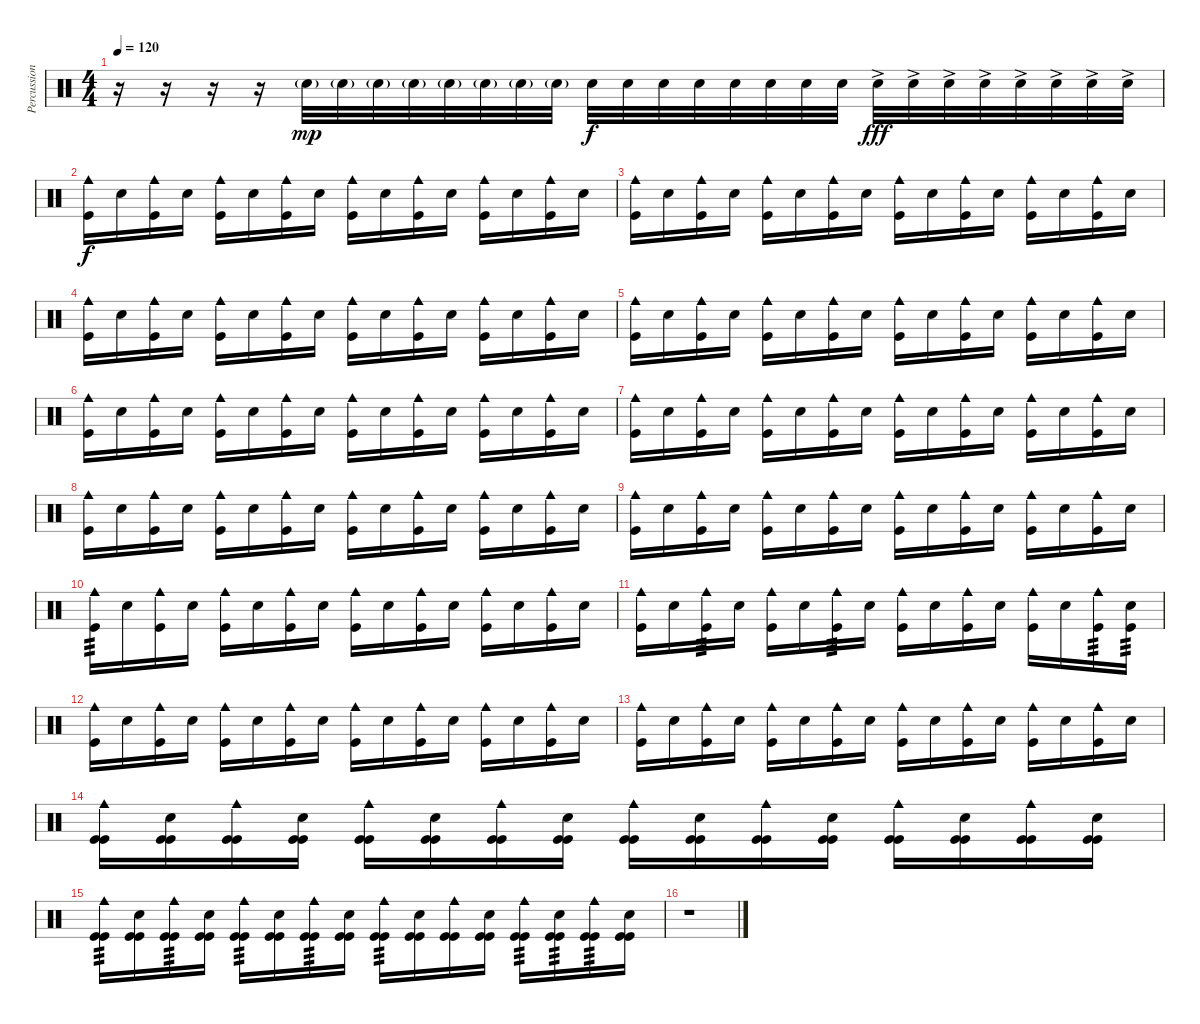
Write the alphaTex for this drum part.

\track ("Percussion" "Percussion") {instrument percussion}
\staff {score}
\articulation defaults
\ts (4 4)
\tempo 120
\clef neutral
\ks c
r.16{dy f} r.16 r.16 r.16 "Snare (hit) 2"{g}.32{dy mp} "Snare (hit) 2"{g}.32 "Snare (hit) 2"{g}.32 "Snare (hit) 2"{g}.32 "Snare (hit) 2"{g}.32 "Snare (hit) 2"{g}.32 "Snare (hit) 2"{g}.32 "Snare (hit) 2"{g}.32 "Snare (hit) 2".32{dy f} "Snare (hit) 2".32 "Snare (hit) 2".32 "Snare (hit) 2".32 "Snare (hit) 2".32 "Snare (hit) 2".32 "Snare (hit) 2".32 "Snare (hit) 2".32 "Snare (hit) 2"{ac}.32{dy fff} "Snare (hit) 2"{ac}.32 "Snare (hit) 2"{ac}.32 "Snare (hit) 2"{ac}.32 "Snare (hit) 2"{ac}.32 "Snare (hit) 2"{ac}.32 "Snare (hit) 2"{ac}.32 "Snare (hit) 2"{ac}.32 |
("Kick (hit)" "Cowbell medium (hit)").16{dy f} "Snare (hit) 2".16 ("Kick (hit)" "Cowbell medium (hit)").16 "Snare (hit) 2".16 ("Kick (hit)" "Cowbell medium (hit)").16 "Snare (hit) 2".16 ("Kick (hit)" "Cowbell medium (hit)").16 "Snare (hit) 2".16 ("Kick (hit)" "Cowbell medium (hit)").16 "Snare (hit) 2".16 ("Kick (hit)" "Cowbell medium (hit)").16 "Snare (hit) 2".16 ("Kick (hit)" "Cowbell medium (hit)").16 "Snare (hit) 2".16 ("Kick (hit)" "Cowbell medium (hit)").16 "Snare (hit) 2".16 |
("Kick (hit)" "Cowbell medium (hit)").16 "Snare (hit) 2".16 ("Kick (hit)" "Cowbell medium (hit)").16 "Snare (hit) 2".16 ("Kick (hit)" "Cowbell medium (hit)").16 "Snare (hit) 2".16 ("Kick (hit)" "Cowbell medium (hit)").16 "Snare (hit) 2".16 ("Kick (hit)" "Cowbell medium (hit)").16 "Snare (hit) 2".16 ("Kick (hit)" "Cowbell medium (hit)").16 "Snare (hit) 2".16 ("Kick (hit)" "Cowbell medium (hit)").16 "Snare (hit) 2".16 ("Kick (hit)" "Cowbell medium (hit)").16 "Snare (hit) 2".16 |
("Kick (hit)" "Cowbell medium (hit)").16 "Snare (hit) 2".16 ("Kick (hit)" "Cowbell medium (hit)").16 "Snare (hit) 2".16 ("Kick (hit)" "Cowbell medium (hit)").16 "Snare (hit) 2".16 ("Kick (hit)" "Cowbell medium (hit)").16 "Snare (hit) 2".16 ("Kick (hit)" "Cowbell medium (hit)").16 "Snare (hit) 2".16 ("Kick (hit)" "Cowbell medium (hit)").16 "Snare (hit) 2".16 ("Kick (hit)" "Cowbell medium (hit)").16 "Snare (hit) 2".16 ("Kick (hit)" "Cowbell medium (hit)").16 "Snare (hit) 2".16 |
("Kick (hit)" "Cowbell medium (hit)").16 "Snare (hit) 2".16 ("Kick (hit)" "Cowbell medium (hit)").16 "Snare (hit) 2".16 ("Kick (hit)" "Cowbell medium (hit)").16 "Snare (hit) 2".16 ("Kick (hit)" "Cowbell medium (hit)").16 "Snare (hit) 2".16 ("Kick (hit)" "Cowbell medium (hit)").16 "Snare (hit) 2".16 ("Kick (hit)" "Cowbell medium (hit)").16 "Snare (hit) 2".16 ("Kick (hit)" "Cowbell medium (hit)").16 "Snare (hit) 2".16 ("Kick (hit)" "Cowbell medium (hit)").16 "Snare (hit) 2".16 |
("Kick (hit)" "Cowbell medium (hit)").16 "Snare (hit) 2".16 ("Kick (hit)" "Cowbell medium (hit)").16 "Snare (hit) 2".16 ("Kick (hit)" "Cowbell medium (hit)").16 "Snare (hit) 2".16 ("Kick (hit)" "Cowbell medium (hit)").16 "Snare (hit) 2".16 ("Kick (hit)" "Cowbell medium (hit)").16 "Snare (hit) 2".16 ("Kick (hit)" "Cowbell medium (hit)").16 "Snare (hit) 2".16 ("Kick (hit)" "Cowbell medium (hit)").16 "Snare (hit) 2".16 ("Kick (hit)" "Cowbell medium (hit)").16 "Snare (hit) 2".16 |
("Kick (hit)" "Cowbell medium (hit)").16 "Snare (hit) 2".16 ("Kick (hit)" "Cowbell medium (hit)").16 "Snare (hit) 2".16 ("Kick (hit)" "Cowbell medium (hit)").16 "Snare (hit) 2".16 ("Kick (hit)" "Cowbell medium (hit)").16 "Snare (hit) 2".16 ("Kick (hit)" "Cowbell medium (hit)").16 "Snare (hit) 2".16 ("Kick (hit)" "Cowbell medium (hit)").16 "Snare (hit) 2".16 ("Kick (hit)" "Cowbell medium (hit)").16 "Snare (hit) 2".16 ("Kick (hit)" "Cowbell medium (hit)").16 "Snare (hit) 2".16 |
("Kick (hit)" "Cowbell medium (hit)").16 "Snare (hit) 2".16 ("Kick (hit)" "Cowbell medium (hit)").16 "Snare (hit) 2".16 ("Kick (hit)" "Cowbell medium (hit)").16 "Snare (hit) 2".16 ("Kick (hit)" "Cowbell medium (hit)").16 "Snare (hit) 2".16 ("Kick (hit)" "Cowbell medium (hit)").16 "Snare (hit) 2".16 ("Kick (hit)" "Cowbell medium (hit)").16 "Snare (hit) 2".16 ("Kick (hit)" "Cowbell medium (hit)").16 "Snare (hit) 2".16 ("Kick (hit)" "Cowbell medium (hit)").16 "Snare (hit) 2".16 |
("Kick (hit)" "Cowbell medium (hit)").16 "Snare (hit) 2".16 ("Kick (hit)" "Cowbell medium (hit)").16 "Snare (hit) 2".16 ("Kick (hit)" "Cowbell medium (hit)").16 "Snare (hit) 2".16 ("Kick (hit)" "Cowbell medium (hit)").16 "Snare (hit) 2".16 ("Kick (hit)" "Cowbell medium (hit)").16 "Snare (hit) 2".16 ("Kick (hit)" "Cowbell medium (hit)").16 "Snare (hit) 2".16 ("Kick (hit)" "Cowbell medium (hit)").16 "Snare (hit) 2".16 ("Kick (hit)" "Cowbell medium (hit)").16 "Snare (hit) 2".16 |
("Kick (hit)" "Cowbell medium (hit)").16{tp 3} "Snare (hit) 2".16 ("Kick (hit)" "Cowbell medium (hit)").16 "Snare (hit) 2".16 ("Kick (hit)" "Cowbell medium (hit)").16 "Snare (hit) 2".16 ("Kick (hit)" "Cowbell medium (hit)").16 "Snare (hit) 2".16 ("Kick (hit)" "Cowbell medium (hit)").16 "Snare (hit) 2".16 ("Kick (hit)" "Cowbell medium (hit)").16 "Snare (hit) 2".16 ("Kick (hit)" "Cowbell medium (hit)").16 "Snare (hit) 2".16 ("Kick (hit)" "Cowbell medium (hit)").16 "Snare (hit) 2".16 |
("Kick (hit)" "Cowbell medium (hit)").16 "Snare (hit) 2".16 ("Kick (hit)" "Cowbell medium (hit)").16{tp 3} "Snare (hit) 2".16 ("Kick (hit)" "Cowbell medium (hit)").16 "Snare (hit) 2".16 ("Kick (hit)" "Cowbell medium (hit)").16{tp 3} "Snare (hit) 2".16 ("Kick (hit)" "Cowbell medium (hit)").16 "Snare (hit) 2".16 ("Kick (hit)" "Cowbell medium (hit)").16 "Snare (hit) 2".16 ("Kick (hit)" "Cowbell medium (hit)").16 "Snare (hit) 2".16 ("Kick (hit)" "Cowbell medium (hit)").16{tp 3} ("Kick (hit)" "Snare (hit) 2").16{tp 3} |
("Kick (hit)" "Cowbell medium (hit)").16 "Snare (hit) 2".16 ("Kick (hit)" "Cowbell medium (hit)").16 "Snare (hit) 2".16 ("Kick (hit)" "Cowbell medium (hit)").16 "Snare (hit) 2".16 ("Kick (hit)" "Cowbell medium (hit)").16 "Snare (hit) 2".16 ("Kick (hit)" "Cowbell medium (hit)").16 "Snare (hit) 2".16 ("Kick (hit)" "Cowbell medium (hit)").16 "Snare (hit) 2".16 ("Kick (hit)" "Cowbell medium (hit)").16 "Snare (hit) 2".16 ("Kick (hit)" "Cowbell medium (hit)").16 "Snare (hit) 2".16 |
("Kick (hit)" "Cowbell medium (hit)").16 "Snare (hit) 2".16 ("Kick (hit)" "Cowbell medium (hit)").16 "Snare (hit) 2".16 ("Kick (hit)" "Cowbell medium (hit)").16 "Snare (hit) 2".16 ("Kick (hit)" "Cowbell medium (hit)").16 "Snare (hit) 2".16 ("Kick (hit)" "Cowbell medium (hit)").16 "Snare (hit) 2".16 ("Kick (hit)" "Cowbell medium (hit)").16 "Snare (hit) 2".16 ("Kick (hit)" "Cowbell medium (hit)").16 "Snare (hit) 2".16 ("Kick (hit)" "Cowbell medium (hit)").16 "Snare (hit) 2".16 |
("Kick (hit)" "Kick (hit)" "Cowbell medium (hit)").16 ("Kick (hit)" "Kick (hit)" "Snare (hit) 2").16 ("Kick (hit)" "Kick (hit)" "Cowbell medium (hit)").16 ("Kick (hit)" "Kick (hit)" "Snare (hit) 2").16 ("Kick (hit)" "Kick (hit)" "Cowbell medium (hit)").16 ("Kick (hit)" "Kick (hit)" "Snare (hit) 2").16 ("Kick (hit)" "Kick (hit)" "Cowbell medium (hit)").16 ("Kick (hit)" "Kick (hit)" "Snare (hit) 2").16 ("Kick (hit)" "Kick (hit)" "Cowbell medium (hit)").16 ("Kick (hit)" "Kick (hit)" "Snare (hit) 2").16 ("Kick (hit)" "Kick (hit)" "Cowbell medium (hit)").16 ("Kick (hit)" "Kick (hit)" "Snare (hit) 2").16 ("Kick (hit)" "Kick (hit)" "Cowbell medium (hit)").16 ("Kick (hit)" "Kick (hit)" "Snare (hit) 2").16 ("Kick (hit)" "Kick (hit)" "Cowbell medium (hit)").16 ("Kick (hit)" "Kick (hit)" "Snare (hit) 2").16 |
("Kick (hit)" "Kick (hit)" "Cowbell medium (hit)").16{tp 3} ("Kick (hit)" "Kick (hit)" "Snare (hit) 2").16 ("Kick (hit)" "Kick (hit)" "Cowbell medium (hit)").16{tp 3} ("Kick (hit)" "Kick (hit)" "Snare (hit) 2").16 ("Kick (hit)" "Kick (hit)" "Cowbell medium (hit)").16{tp 3} ("Kick (hit)" "Kick (hit)" "Snare (hit) 2").16 ("Kick (hit)" "Kick (hit)" "Cowbell medium (hit)").16{tp 3} ("Kick (hit)" "Kick (hit)" "Snare (hit) 2").16 ("Kick (hit)" "Kick (hit)" "Cowbell medium (hit)").16{tp 3} ("Kick (hit)" "Kick (hit)" "Snare (hit) 2").16 ("Kick (hit)" "Kick (hit)" "Cowbell medium (hit)").16 ("Kick (hit)" "Kick (hit)" "Snare (hit) 2").16 ("Kick (hit)" "Kick (hit)" "Cowbell medium (hit)").16{tp 3} ("Kick (hit)" "Kick (hit)" "Snare (hit) 2").16{tp 3} ("Kick (hit)" "Kick (hit)" "Cowbell medium (hit)").16{tp 3} ("Kick (hit)" "Kick (hit)" "Snare (hit) 2").16 |
r.1
